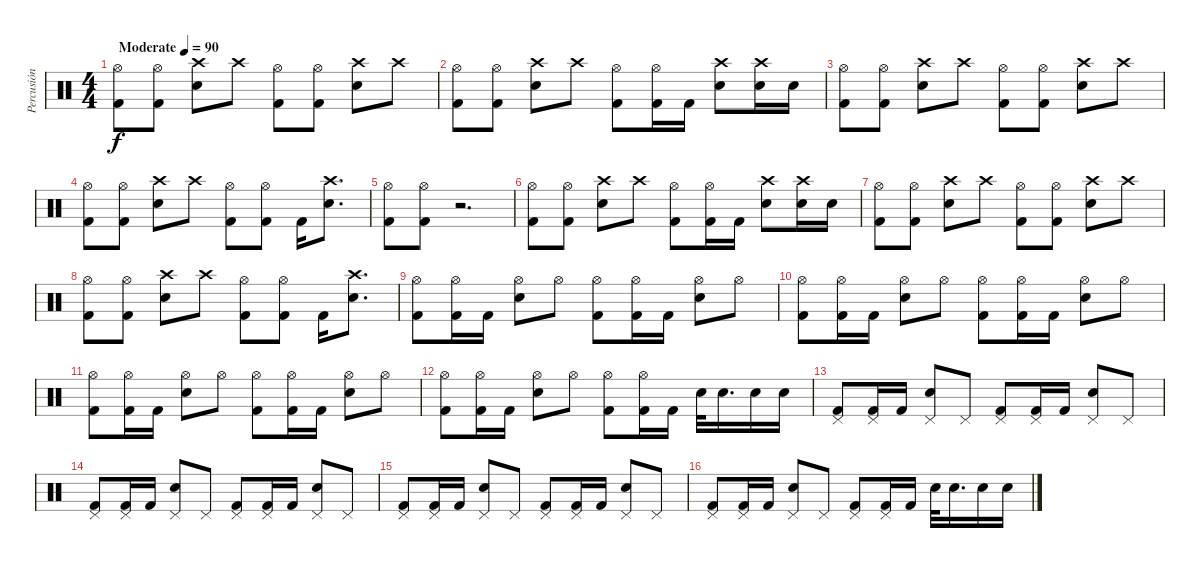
\track ("Percusión" "Percusión") {instrument percussion}
\staff
\articulation defaults
\ts (4 4)
\tempo (90 "Moderate")
\clef neutral
\ks c
("Kick (hit) 2" "Hi-Hat (open)").8{dy f} ("Kick (hit) 2" "Hi-Hat (open)").8 ("Electric Snare (hit)" "Crash high (hit)").8 "Crash high (hit)".8 ("Kick (hit) 2" "Hi-Hat (open)").8 ("Kick (hit) 2" "Hi-Hat (open)").8 ("Electric Snare (hit)" "Crash high (hit)").8 "Crash high (hit)".8 |
("Kick (hit) 2" "Hi-Hat (open)").8 ("Kick (hit) 2" "Hi-Hat (open)").8 ("Electric Snare (hit)" "Crash high (hit)").8 "Crash high (hit)".8 ("Kick (hit) 2" "Hi-Hat (open)").8 ("Kick (hit) 2" "Hi-Hat (open)").16 "Kick (hit) 2".16 ("Electric Snare (hit)" "Crash high (hit)").8 ("Electric Snare (hit)" "Crash high (hit)").16 "Electric Snare (hit)".16 |
("Kick (hit) 2" "Hi-Hat (open)").8 ("Kick (hit) 2" "Hi-Hat (open)").8 ("Electric Snare (hit)" "Crash high (hit)").8 "Crash high (hit)".8 ("Kick (hit) 2" "Hi-Hat (open)").8 ("Kick (hit) 2" "Hi-Hat (open)").8 ("Electric Snare (hit)" "Crash high (hit)").8 "Crash high (hit)".8 |
("Kick (hit) 2" "Hi-Hat (open)").8 ("Kick (hit) 2" "Hi-Hat (open)").8 ("Electric Snare (hit)" "Crash high (hit)").8 "Crash high (hit)".8 ("Kick (hit) 2" "Hi-Hat (open)").8 ("Kick (hit) 2" "Hi-Hat (open)").8 "Kick (hit) 2".16 ("Electric Snare (hit)" "Crash high (hit)").8{d} |
("Kick (hit) 2" "Hi-Hat (open)").8 ("Kick (hit) 2" "Hi-Hat (open)").8 r.2{d} |
("Kick (hit) 2" "Hi-Hat (open)").8 ("Kick (hit) 2" "Hi-Hat (open)").8 ("Electric Snare (hit)" "Crash high (hit)").8 "Crash high (hit)".8 ("Kick (hit) 2" "Hi-Hat (open)").8 ("Kick (hit) 2" "Hi-Hat (open)").16 "Kick (hit) 2".16 ("Electric Snare (hit)" "Crash high (hit)").8 ("Electric Snare (hit)" "Crash high (hit)").16 "Electric Snare (hit)".16 |
("Kick (hit) 2" "Hi-Hat (open)").8 ("Kick (hit) 2" "Hi-Hat (open)").8 ("Electric Snare (hit)" "Crash high (hit)").8 "Crash high (hit)".8 ("Kick (hit) 2" "Hi-Hat (open)").8 ("Kick (hit) 2" "Hi-Hat (open)").8 ("Electric Snare (hit)" "Crash high (hit)").8 "Crash high (hit)".8 |
("Kick (hit) 2" "Hi-Hat (open)").8 ("Kick (hit) 2" "Hi-Hat (open)").8 ("Electric Snare (hit)" "Crash high (hit)").8 "Crash high (hit)".8 ("Kick (hit) 2" "Hi-Hat (open)").8 ("Kick (hit) 2" "Hi-Hat (open)").8 "Kick (hit) 2".16 ("Electric Snare (hit)" "Crash high (hit)").8{d} |
("Kick (hit) 2" "Hi-Hat (open)").8 ("Kick (hit) 2" "Hi-Hat (open)").16 "Kick (hit) 2".16 ("Electric Snare (hit)" "Hi-Hat (open)").8 "Hi-Hat (open)".8 ("Kick (hit) 2" "Hi-Hat (open)").8 ("Kick (hit) 2" "Hi-Hat (open)").16 "Kick (hit) 2".16 ("Electric Snare (hit)" "Hi-Hat (open)").8 "Hi-Hat (open)".8 |
("Kick (hit) 2" "Hi-Hat (open)").8 ("Kick (hit) 2" "Hi-Hat (open)").16 "Kick (hit) 2".16 ("Electric Snare (hit)" "Hi-Hat (open)").8 "Hi-Hat (open)".8 ("Kick (hit) 2" "Hi-Hat (open)").8 ("Kick (hit) 2" "Hi-Hat (open)").16 "Kick (hit) 2".16 ("Electric Snare (hit)" "Hi-Hat (open)").8 "Hi-Hat (open)".8 |
("Kick (hit) 2" "Hi-Hat (open)").8 ("Kick (hit) 2" "Hi-Hat (open)").16 "Kick (hit) 2".16 ("Electric Snare (hit)" "Hi-Hat (open)").8 "Hi-Hat (open)".8 ("Kick (hit) 2" "Hi-Hat (open)").8 ("Kick (hit) 2" "Hi-Hat (open)").16 "Kick (hit) 2".16 ("Electric Snare (hit)" "Hi-Hat (open)").8 "Hi-Hat (open)".8 |
("Kick (hit) 2" "Hi-Hat (open)").8 ("Kick (hit) 2" "Hi-Hat (open)").16 "Kick (hit) 2".16 ("Electric Snare (hit)" "Hi-Hat (open)").8 "Hi-Hat (open)".8 ("Kick (hit) 2" "Hi-Hat (open)").8 ("Kick (hit) 2" "Hi-Hat (open)").16 "Kick (hit) 2".16 "Electric Snare (hit)".32 "Electric Snare (hit)".16{d} "Electric Snare (hit)".16 "Electric Snare (hit)".16 |
("Kick (hit) 2" "Pedal Hi-Hat (hit)").8 ("Kick (hit) 2" "Pedal Hi-Hat (hit)").16 "Kick (hit) 2".16 ("Electric Snare (hit)" "Pedal Hi-Hat (hit)").8 "Pedal Hi-Hat (hit)".8 ("Kick (hit) 2" "Pedal Hi-Hat (hit)").8 ("Kick (hit) 2" "Pedal Hi-Hat (hit)").16 "Kick (hit) 2".16 ("Electric Snare (hit)" "Pedal Hi-Hat (hit)").8 "Pedal Hi-Hat (hit)".8 |
("Kick (hit) 2" "Pedal Hi-Hat (hit)").8 ("Kick (hit) 2" "Pedal Hi-Hat (hit)").16 "Kick (hit) 2".16 ("Electric Snare (hit)" "Pedal Hi-Hat (hit)").8 "Pedal Hi-Hat (hit)".8 ("Kick (hit) 2" "Pedal Hi-Hat (hit)").8 ("Kick (hit) 2" "Pedal Hi-Hat (hit)").16 "Kick (hit) 2".16 ("Electric Snare (hit)" "Pedal Hi-Hat (hit)").8 "Pedal Hi-Hat (hit)".8 |
("Kick (hit) 2" "Pedal Hi-Hat (hit)").8 ("Kick (hit) 2" "Pedal Hi-Hat (hit)").16 "Kick (hit) 2".16 ("Electric Snare (hit)" "Pedal Hi-Hat (hit)").8 "Pedal Hi-Hat (hit)".8 ("Kick (hit) 2" "Pedal Hi-Hat (hit)").8 ("Kick (hit) 2" "Pedal Hi-Hat (hit)").16 "Kick (hit) 2".16 ("Electric Snare (hit)" "Pedal Hi-Hat (hit)").8 "Pedal Hi-Hat (hit)".8 |
("Kick (hit) 2" "Pedal Hi-Hat (hit)").8 ("Kick (hit) 2" "Pedal Hi-Hat (hit)").16 "Kick (hit) 2".16 ("Electric Snare (hit)" "Pedal Hi-Hat (hit)").8 "Pedal Hi-Hat (hit)".8 ("Kick (hit) 2" "Pedal Hi-Hat (hit)").8 ("Kick (hit) 2" "Pedal Hi-Hat (hit)").16 "Kick (hit) 2".16 "Electric Snare (hit)".32 "Electric Snare (hit)".16{d} "Electric Snare (hit)".16 "Electric Snare (hit)".16
